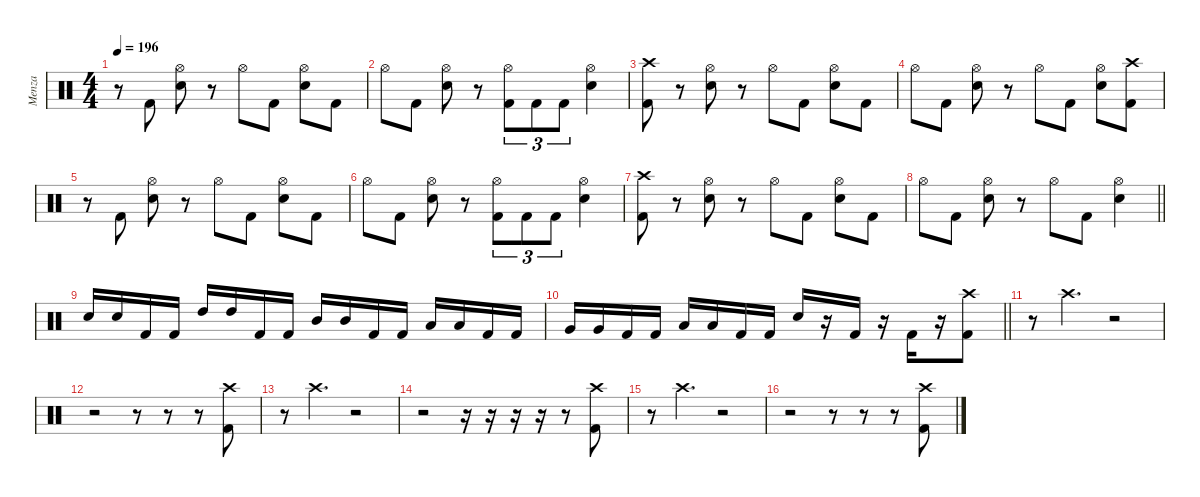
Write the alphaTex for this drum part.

\defaultSystemsLayout 4
\hideDynamics
\bracketExtendMode nobrackets
\firstSystemTrackNameMode fullname
\otherSystemsTrackNameOrientation horizontal
\track ("Menza" "drm.") {instrument percussion}
\staff {score}
\articulation defaults
\ts (4 4)
\tempo 196
\clef neutral
\ks c
r.8{dy fff beam Down} "Kick (hit) 2".8{beam Up} ("Hi-Hat (open)" "Snare (hit) 2").8{dy f beam Down} r.8{beam Down} "Hi-Hat (open)".8{beam Down} "Kick (hit) 2".8{dy fff beam Down} ("Hi-Hat (open)" "Snare (hit) 2").8{dy f beam Down} "Kick (hit) 2".8{dy fff beam Down} |
"Hi-Hat (open)".8{dy f beam Down} "Kick (hit) 2".8{dy fff beam Down} ("Hi-Hat (open)" "Snare (hit) 2").8{dy f beam Down} r.8{beam Down} ("Hi-Hat (open)" "Kick (hit) 2").8{tu (3 2) beam Down} "Kick (hit) 2".8{tu (3 2) dy fff beam Down} "Kick (hit) 2".8{tu (3 2) beam Down} ("Hi-Hat (open)" "Snare (hit) 2").4{dy f beam Down} |
("Crash high (hit)" "Kick (hit) 2").8{dy ff beam Down} r.8{beam Down} ("Hi-Hat (open)" "Snare (hit) 2").8{dy f beam Down} r.8{beam Down} "Hi-Hat (open)".8{beam Down} "Kick (hit) 2".8{dy fff beam Down} ("Hi-Hat (open)" "Snare (hit) 2").8{dy f beam Down} "Kick (hit) 2".8{dy fff beam Down} |
"Hi-Hat (open)".8{dy f beam Down} "Kick (hit) 2".8{dy fff beam Down} ("Hi-Hat (open)" "Snare (hit) 2").8{dy f beam Down} r.8{beam Down} "Hi-Hat (open)".8{beam Down} "Kick (hit) 2".8{dy fff beam Down} ("Hi-Hat (open)" "Snare (hit) 2").8{dy f beam Down} ("Crash high (hit)" "Kick (hit) 2").8{dy fff beam Down} |
r.8{beam Down} "Kick (hit) 2".8{beam Up} ("Hi-Hat (open)" "Snare (hit) 2").8{dy f beam Down} r.8{beam Down} "Hi-Hat (open)".8{beam Down} "Kick (hit) 2".8{dy fff beam Down} ("Hi-Hat (open)" "Snare (hit) 2").8{dy f beam Down} "Kick (hit) 2".8{dy fff beam Down} |
"Hi-Hat (open)".8{dy f beam Down} "Kick (hit) 2".8{dy fff beam Down} ("Hi-Hat (open)" "Snare (hit) 2").8{dy f beam Down} r.8{beam Down} ("Hi-Hat (open)" "Kick (hit) 2").8{tu (3 2) beam Down} "Kick (hit) 2".8{tu (3 2) dy fff beam Down} "Kick (hit) 2".8{tu (3 2) beam Down} ("Hi-Hat (open)" "Snare (hit) 2").4{dy f beam Down} |
("Crash high (hit)" "Kick (hit) 2").8{dy ff beam Down} r.8{beam Down} ("Hi-Hat (open)" "Snare (hit) 2").8{dy f beam Down} r.8{beam Down} "Hi-Hat (open)".8{beam Down} "Kick (hit) 2".8{dy fff beam Down} ("Hi-Hat (open)" "Snare (hit) 2").8{dy f beam Down} "Kick (hit) 2".8{dy fff beam Down} |
\barLineRight lightlight "Hi-Hat (open)".8{dy f beam Down} "Kick (hit) 2".8{dy fff beam Down}
("Hi-Hat (open)" "Snare (hit) 2").8{dy f beam Down} r.8{beam Down} "Hi-Hat (open)".8{beam Down} "Kick (hit) 2".8{dy fff beam Down} ("Hi-Hat (open)" "Snare (hit) 2").4{dy f beam Down} |
"Snare (hit) 2".16{dy fff beam Up} "Snare (hit) 2".16{beam Up} "Kick (hit) 2".16{dy ff beam Up} "Kick (hit) 2".16{beam Up} "High Tom (hit)".16{dy fff beam Up} "High Tom (hit)".16{beam Up} "Kick (hit) 2".16{dy ff beam Up} "Kick (hit) 2".16{beam Up} "Mid Tom (hit)".16{dy fff beam Up} "Mid Tom (hit)".16{beam Up} "Kick (hit) 2".16{dy ff beam Up} "Kick (hit) 2".16{beam Up} "Low Tom (hit)".16{dy fff beam Up} "Low Tom (hit)".16{beam Up} "Kick (hit) 2".16{dy ff beam Up} "Kick (hit) 2".16{beam Up} |
\barLineRight lightlight "Very Low Tom (hit)".16{dy fff beam Up} "Very Low Tom (hit)".16{beam Up} "Kick (hit) 2".16{dy ff beam Up} "Kick (hit) 2".16{beam Up} "Low Floor Tom (hit)".16{dy fff beam Up} "Low Floor Tom (hit)".16{beam Up} "Kick (hit) 2".16{dy ff beam Up} "Kick (hit) 2".16{beam Up} "Snare (hit) 2".16{dy fff beam Up}
r.16{beam Up} "Kick (hit) 2".16{beam Up} r.16{beam Up} "Kick (hit) 2".16{beam Down} r.16{beam Down} ("Crash high (hit)" "Kick (hit) 2").8{beam Down} |
r.8{beam Down} "Crash high (hit)".4{d dy ppp beam Down} r.2{beam Down} |
r.2{beam Down} r.8{beam Down} r.8{beam Down} r.8{beam Down} ("Crash high (hit)" "Kick (hit) 2").8{dy ff beam Down} |
r.8{beam Down} "Crash high (hit)".4{d dy ppp beam Down} r.2{beam Down} |
r.2{beam Down} r.16{beam Down} r.16{beam Down} r.16{beam Down} r.16{beam Down} r.8{beam Down} ("Crash high (hit)" "Kick (hit) 2").8{dy ff beam Down} |
r.8{beam Down} "Crash high (hit)".4{d dy ppp beam Down} r.2{beam Down} |
r.2{beam Down} r.8{beam Down} r.8{beam Down} r.8{beam Down} ("Crash high (hit)" "Kick (hit) 2").8{dy ff beam Down}
